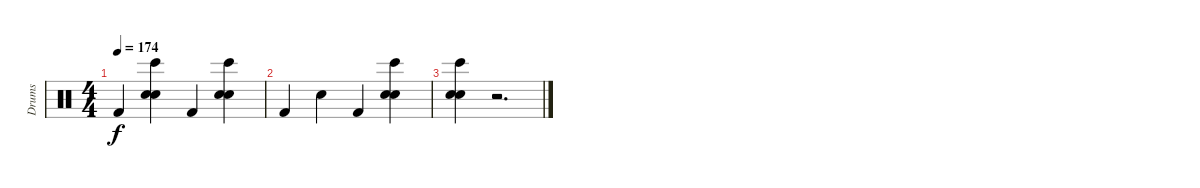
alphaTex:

\track ("Drums" "Drums") {instrument percussion}
\staff {score}
\articulation defaults
\ts (4 4)
\tempo 174
\clef neutral
\ks c "Kick (hit) 2".4{dy f}
("Electric Snare (hit)" "Hand Clap (hit)" "Bongo High (hit)").4 "Kick (hit) 2".4 ("Electric Snare (hit)" "Hand Clap (hit)" "Bongo High (hit)").4 |
"Kick (hit) 2".4 "Electric Snare (hit)".4 "Kick (hit) 2".4 ("Electric Snare (hit)" "Hand Clap (hit)" "Bongo High (hit)").4 |
("Electric Snare (hit)" "Hand Clap (hit)" "Bongo High (hit)").4 r.2{d}
